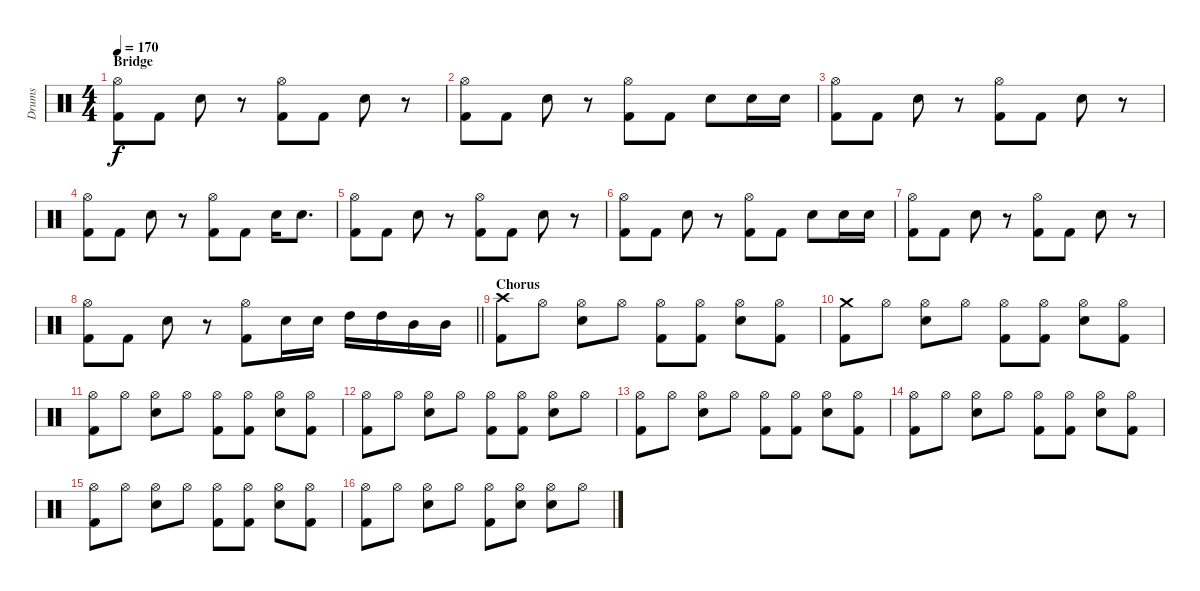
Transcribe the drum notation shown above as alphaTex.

\track ("Drums" "Drums") {instrument percussion}
\staff {score}
\articulation defaults
\ts (4 4)
\section ("" "Bridge")
\tempo 170
\clef neutral
\ks c
("Hi-Hat (open)" "Kick (hit) 2").8{dy f} "Kick (hit) 2".8 "Electric Snare (hit)".8 r.8 ("Hi-Hat (open)" "Kick (hit) 2").8 "Kick (hit) 2".8 "Electric Snare (hit)".8 r.8 |
("Hi-Hat (open)" "Kick (hit) 2").8 "Kick (hit) 2".8 "Electric Snare (hit)".8 r.8 ("Hi-Hat (open)" "Kick (hit) 2").8 "Kick (hit) 2".8 "Electric Snare (hit)".8 "Electric Snare (hit)".16 "Electric Snare (hit)".16 |
("Hi-Hat (open)" "Kick (hit) 2").8 "Kick (hit) 2".8 "Electric Snare (hit)".8 r.8 ("Hi-Hat (open)" "Kick (hit) 2").8 "Kick (hit) 2".8 "Electric Snare (hit)".8 r.8 |
("Hi-Hat (open)" "Kick (hit) 2").8 "Kick (hit) 2".8 "Electric Snare (hit)".8 r.8 ("Hi-Hat (open)" "Kick (hit) 2").8 "Kick (hit) 2".8 "Electric Snare (hit)".16 "Electric Snare (hit)".8{d} |
("Hi-Hat (open)" "Kick (hit) 2").8 "Kick (hit) 2".8 "Electric Snare (hit)".8 r.8 ("Hi-Hat (open)" "Kick (hit) 2").8 "Kick (hit) 2".8 "Electric Snare (hit)".8 r.8 |
("Hi-Hat (open)" "Kick (hit) 2").8 "Kick (hit) 2".8 "Electric Snare (hit)".8 r.8 ("Hi-Hat (open)" "Kick (hit) 2").8 "Kick (hit) 2".8 "Electric Snare (hit)".8 "Electric Snare (hit)".16 "Electric Snare (hit)".16 |
("Hi-Hat (open)" "Kick (hit) 2").8 "Kick (hit) 2".8 "Electric Snare (hit)".8 r.8 ("Hi-Hat (open)" "Kick (hit) 2").8 "Kick (hit) 2".8 "Electric Snare (hit)".8 r.8 |
\barLineRight lightlight
("Hi-Hat (open)" "Kick (hit) 2").8 "Kick (hit) 2".8 "Electric Snare (hit)".8 r.8 ("Hi-Hat (open)" "Kick (hit) 2").8 "Electric Snare (hit)".16 "Electric Snare (hit)".16 "High Tom (hit)".16 "High Tom (hit)".16 "Mid Tom (hit)".16 "Mid Tom (hit)".16 |
\section ("" "Chorus")
("Crash high (hit)" "Kick (hit) 2").8 "Hi-Hat (open)".8 ("Hi-Hat (open)" "Electric Snare (hit)").8 "Hi-Hat (open)".8 ("Hi-Hat (open)" "Kick (hit) 2").8 ("Hi-Hat (open)" "Kick (hit) 2").8 ("Hi-Hat (open)" "Electric Snare (hit)").8 ("Hi-Hat (open)" "Kick (hit) 2").8 |
("Crash medium (hit)" "Kick (hit) 2").8 "Hi-Hat (open)".8 ("Hi-Hat (open)" "Electric Snare (hit)").8 "Hi-Hat (open)".8 ("Hi-Hat (open)" "Kick (hit) 2").8 ("Hi-Hat (open)" "Kick (hit) 2").8 ("Hi-Hat (open)" "Electric Snare (hit)").8 ("Hi-Hat (open)" "Kick (hit) 2").8 |
("Hi-Hat (open)" "Kick (hit) 2").8 "Hi-Hat (open)".8 ("Hi-Hat (open)" "Electric Snare (hit)").8 "Hi-Hat (open)".8 ("Hi-Hat (open)" "Kick (hit) 2").8 ("Hi-Hat (open)" "Kick (hit) 2").8 ("Hi-Hat (open)" "Electric Snare (hit)").8 ("Hi-Hat (open)" "Kick (hit) 2").8 |
("Hi-Hat (open)" "Kick (hit) 2").8 "Hi-Hat (open)".8 ("Hi-Hat (open)" "Electric Snare (hit)").8 "Hi-Hat (open)".8 ("Hi-Hat (open)" "Kick (hit) 2").8 ("Hi-Hat (open)" "Kick (hit) 2").8 ("Hi-Hat (open)" "Electric Snare (hit)").8 "Hi-Hat (open)".8 |
("Hi-Hat (open)" "Kick (hit) 2").8 "Hi-Hat (open)".8 ("Hi-Hat (open)" "Electric Snare (hit)").8 "Hi-Hat (open)".8 ("Hi-Hat (open)" "Kick (hit) 2").8 ("Hi-Hat (open)" "Kick (hit) 2").8 ("Hi-Hat (open)" "Electric Snare (hit)").8 ("Hi-Hat (open)" "Kick (hit) 2").8 |
("Hi-Hat (open)" "Kick (hit) 2").8 "Hi-Hat (open)".8 ("Hi-Hat (open)" "Electric Snare (hit)").8 "Hi-Hat (open)".8 ("Hi-Hat (open)" "Kick (hit) 2").8 ("Hi-Hat (open)" "Kick (hit) 2").8 ("Hi-Hat (open)" "Electric Snare (hit)").8 ("Hi-Hat (open)" "Kick (hit) 2").8 |
("Hi-Hat (open)" "Kick (hit) 2").8 "Hi-Hat (open)".8 ("Hi-Hat (open)" "Electric Snare (hit)").8 "Hi-Hat (open)".8 ("Hi-Hat (open)" "Kick (hit) 2").8 ("Hi-Hat (open)" "Kick (hit) 2").8 ("Hi-Hat (open)" "Electric Snare (hit)").8 ("Hi-Hat (open)" "Kick (hit) 2").8 |
("Hi-Hat (open)" "Kick (hit) 2").8 "Hi-Hat (open)".8 ("Hi-Hat (open)" "Electric Snare (hit)").8 "Hi-Hat (open)".8 ("Hi-Hat (open)" "Kick (hit) 2").8 ("Hi-Hat (open)" "Electric Snare (hit)").8 ("Hi-Hat (open)" "Electric Snare (hit)").8 "Hi-Hat (open)".8
